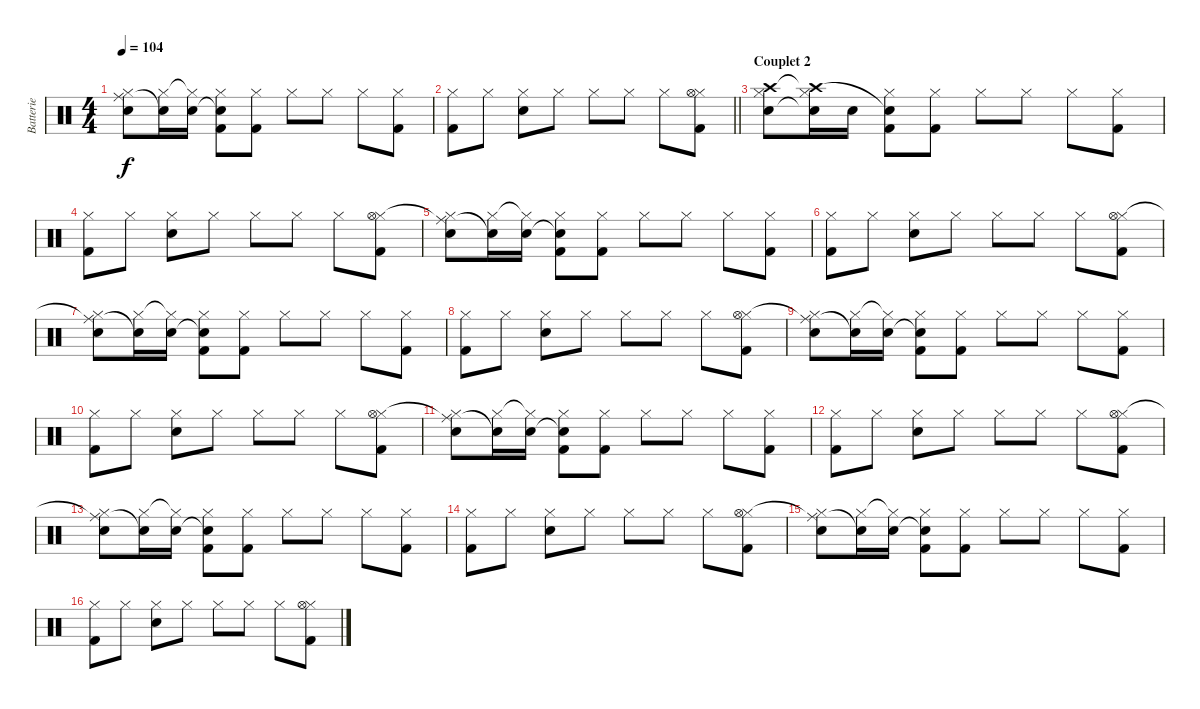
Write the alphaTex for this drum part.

\track ("Batterie" "Batterie") {instrument percussion}
\staff {score}
\articulation defaults
\ts (4 4)
\tempo 104
\clef neutral
\ks c
("Hi-Hat (closed)" "Ride (middle)"{t} "Electric Snare (hit)").8{dy f} ("Hi-Hat (closed)" "Electric Snare (hit)"{t}).16 ("Hi-Hat (closed)"{t} "Electric Snare (hit)").16 ("Hi-Hat (closed)" "Snare (hit) 2"{t} "Kick (hit) 2").8 ("Hi-Hat (closed)" "Kick (hit) 2").8 "Hi-Hat (closed)".8 "Hi-Hat (closed)".8 "Hi-Hat (closed)".8 ("Hi-Hat (closed)" "Kick (hit) 2").8 |
\barLineRight lightlight
("Hi-Hat (closed)" "Kick (hit) 2").8 "Hi-Hat (closed)".8 ("Hi-Hat (closed)" "Electric Snare (hit)").8 "Hi-Hat (closed)".8 "Hi-Hat (closed)".8 "Hi-Hat (closed)".8 "Hi-Hat (closed)".8 ("Hi-Hat (closed)" "Hi-Hat (open)" "Kick (hit) 2").8 |
\section ("" "Couplet 2")
("Hi-Hat (closed)" "Crash high (hit)" "Electric Snare (hit)").8 ("Hi-Hat (closed)" "Crash high (hit)"{t} "Electric Snare (hit)"{t}).16 "Electric Snare (hit)".16 ("Hi-Hat (closed)" "Snare (hit) 2"{t} "Kick (hit) 2").8 ("Hi-Hat (closed)" "Kick (hit) 2").8 "Hi-Hat (closed)".8 "Hi-Hat (closed)".8 "Hi-Hat (closed)".8 ("Hi-Hat (closed)" "Kick (hit) 2").8 |
("Hi-Hat (closed)" "Kick (hit) 2").8 "Hi-Hat (closed)".8 ("Hi-Hat (closed)" "Electric Snare (hit)").8 "Hi-Hat (closed)".8 "Hi-Hat (closed)".8 "Hi-Hat (closed)".8 "Hi-Hat (closed)".8 ("Hi-Hat (closed)" "Hi-Hat (open)" "Kick (hit) 2").8 |
("Hi-Hat (closed)" "Ride (middle)"{t} "Electric Snare (hit)").8 ("Hi-Hat (closed)" "Electric Snare (hit)"{t}).16 ("Hi-Hat (closed)"{t} "Electric Snare (hit)").16 ("Hi-Hat (closed)" "Snare (hit) 2"{t} "Kick (hit) 2").8 ("Hi-Hat (closed)" "Kick (hit) 2").8 "Hi-Hat (closed)".8 "Hi-Hat (closed)".8 "Hi-Hat (closed)".8 ("Hi-Hat (closed)" "Kick (hit) 2").8 |
("Hi-Hat (closed)" "Kick (hit) 2").8 "Hi-Hat (closed)".8 ("Hi-Hat (closed)" "Electric Snare (hit)").8 "Hi-Hat (closed)".8 "Hi-Hat (closed)".8 "Hi-Hat (closed)".8 "Hi-Hat (closed)".8 ("Hi-Hat (closed)" "Hi-Hat (open)" "Kick (hit) 2").8 |
("Hi-Hat (closed)" "Ride (middle)"{t} "Electric Snare (hit)").8 ("Hi-Hat (closed)" "Electric Snare (hit)"{t}).16 ("Hi-Hat (closed)"{t} "Electric Snare (hit)").16 ("Hi-Hat (closed)" "Snare (hit) 2"{t} "Kick (hit) 2").8 ("Hi-Hat (closed)" "Kick (hit) 2").8 "Hi-Hat (closed)".8 "Hi-Hat (closed)".8 "Hi-Hat (closed)".8 ("Hi-Hat (closed)" "Kick (hit) 2").8 |
("Hi-Hat (closed)" "Kick (hit) 2").8 "Hi-Hat (closed)".8 ("Hi-Hat (closed)" "Electric Snare (hit)").8 "Hi-Hat (closed)".8 "Hi-Hat (closed)".8 "Hi-Hat (closed)".8 "Hi-Hat (closed)".8 ("Hi-Hat (closed)" "Hi-Hat (open)" "Kick (hit) 2").8 |
("Hi-Hat (closed)" "Ride (middle)"{t} "Electric Snare (hit)").8 ("Hi-Hat (closed)" "Electric Snare (hit)"{t}).16 ("Hi-Hat (closed)"{t} "Electric Snare (hit)").16 ("Hi-Hat (closed)" "Snare (hit) 2"{t} "Kick (hit) 2").8 ("Hi-Hat (closed)" "Kick (hit) 2").8 "Hi-Hat (closed)".8 "Hi-Hat (closed)".8 "Hi-Hat (closed)".8 ("Hi-Hat (closed)" "Kick (hit) 2").8 |
("Hi-Hat (closed)" "Kick (hit) 2").8 "Hi-Hat (closed)".8 ("Hi-Hat (closed)" "Electric Snare (hit)").8 "Hi-Hat (closed)".8 "Hi-Hat (closed)".8 "Hi-Hat (closed)".8 "Hi-Hat (closed)".8 ("Hi-Hat (closed)" "Hi-Hat (open)" "Kick (hit) 2").8 |
("Hi-Hat (closed)" "Ride (middle)"{t} "Electric Snare (hit)").8 ("Hi-Hat (closed)" "Electric Snare (hit)"{t}).16 ("Hi-Hat (closed)"{t} "Electric Snare (hit)").16 ("Hi-Hat (closed)" "Snare (hit) 2"{t} "Kick (hit) 2").8 ("Hi-Hat (closed)" "Kick (hit) 2").8 "Hi-Hat (closed)".8 "Hi-Hat (closed)".8 "Hi-Hat (closed)".8 ("Hi-Hat (closed)" "Kick (hit) 2").8 |
("Hi-Hat (closed)" "Kick (hit) 2").8 "Hi-Hat (closed)".8 ("Hi-Hat (closed)" "Electric Snare (hit)").8 "Hi-Hat (closed)".8 "Hi-Hat (closed)".8 "Hi-Hat (closed)".8 "Hi-Hat (closed)".8 ("Hi-Hat (closed)" "Hi-Hat (open)" "Kick (hit) 2").8 |
("Hi-Hat (closed)" "Ride (middle)"{t} "Electric Snare (hit)").8 ("Hi-Hat (closed)" "Electric Snare (hit)"{t}).16 ("Hi-Hat (closed)"{t} "Electric Snare (hit)").16 ("Hi-Hat (closed)" "Snare (hit) 2"{t} "Kick (hit) 2").8 ("Hi-Hat (closed)" "Kick (hit) 2").8 "Hi-Hat (closed)".8 "Hi-Hat (closed)".8 "Hi-Hat (closed)".8 ("Hi-Hat (closed)" "Kick (hit) 2").8 |
("Hi-Hat (closed)" "Kick (hit) 2").8 "Hi-Hat (closed)".8 ("Hi-Hat (closed)" "Electric Snare (hit)").8 "Hi-Hat (closed)".8 "Hi-Hat (closed)".8 "Hi-Hat (closed)".8 "Hi-Hat (closed)".8 ("Hi-Hat (closed)" "Hi-Hat (open)" "Kick (hit) 2").8 |
("Hi-Hat (closed)" "Ride (middle)"{t} "Electric Snare (hit)").8 ("Hi-Hat (closed)" "Electric Snare (hit)"{t}).16 ("Hi-Hat (closed)"{t} "Electric Snare (hit)").16 ("Hi-Hat (closed)" "Snare (hit) 2"{t} "Kick (hit) 2").8 ("Hi-Hat (closed)" "Kick (hit) 2").8 "Hi-Hat (closed)".8 "Hi-Hat (closed)".8 "Hi-Hat (closed)".8 ("Hi-Hat (closed)" "Kick (hit) 2").8 |
("Hi-Hat (closed)" "Kick (hit) 2").8 "Hi-Hat (closed)".8 ("Hi-Hat (closed)" "Electric Snare (hit)").8 "Hi-Hat (closed)".8 "Hi-Hat (closed)".8 "Hi-Hat (closed)".8 "Hi-Hat (closed)".8 ("Hi-Hat (closed)" "Hi-Hat (open)" "Kick (hit) 2").8
